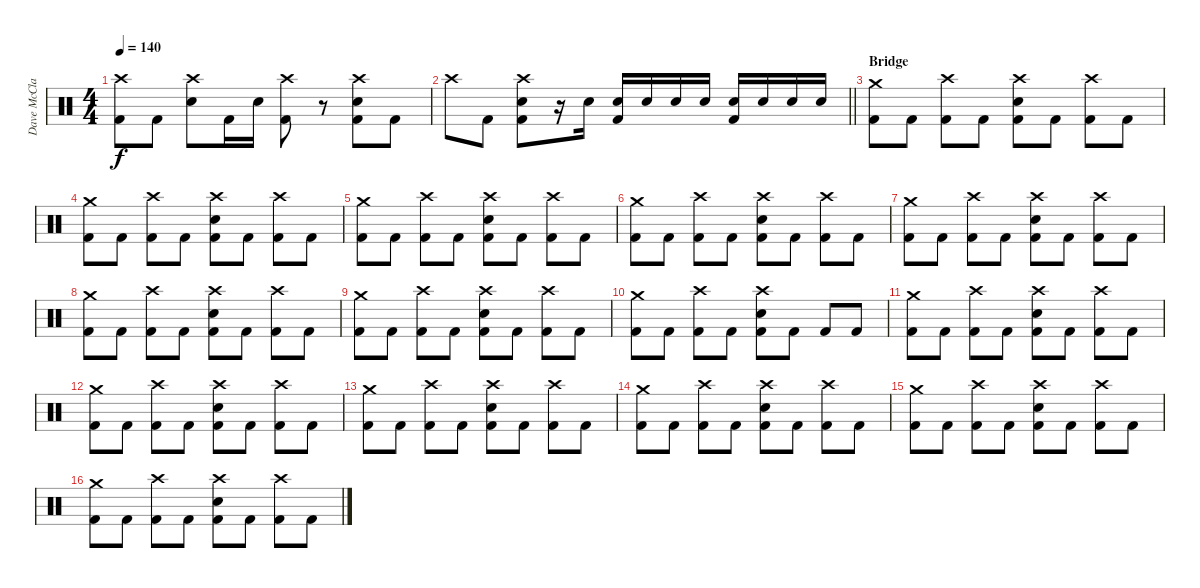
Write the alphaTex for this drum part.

\track ("Dave McClain" "Dave McCla") {solo instrument percussion}
\staff {score}
\articulation defaults
\ts (4 4)
\tempo 140
\clef neutral
\ks c
("Crash high (hit)" "Kick (hit) 2").8{dy f} "Kick (hit) 2".8 ("Crash high (hit)" "Electric Snare (hit)").8 "Kick (hit) 2".16 "Electric Snare (hit)".16 ("Crash high (hit)" "Kick (hit) 2").8 r.8 ("Crash high (hit)" "Electric Snare (hit)" "Kick (hit) 2").8 "Kick (hit) 2".8 |
\barLineRight lightlight "Crash high (hit)".8 "Kick (hit) 2".8
("Crash high (hit)" "Electric Snare (hit)" "Kick (hit) 2").8 r.16 "Electric Snare (hit)".16 ("Electric Snare (hit)" "Kick (hit) 2").16 "Electric Snare (hit)".16 "Electric Snare (hit)".16 "Electric Snare (hit)".16 ("Electric Snare (hit)" "Kick (hit) 2").16 "Electric Snare (hit)".16 "Electric Snare (hit)".16 "Electric Snare (hit)".16 |
\section ("" "Bridge")
("Crash medium (hit)" "Kick (hit) 2").8 "Kick (hit) 2".8 ("Crash high (hit)" "Kick (hit) 2").8 "Kick (hit) 2".8 ("Crash high (hit)" "Electric Snare (hit)" "Kick (hit) 2").8 "Kick (hit) 2".8 ("Crash high (hit)" "Kick (hit) 2").8 "Kick (hit) 2".8 |
("Crash medium (hit)" "Kick (hit) 2").8 "Kick (hit) 2".8 ("Crash high (hit)" "Kick (hit) 2").8 "Kick (hit) 2".8 ("Crash high (hit)" "Electric Snare (hit)" "Kick (hit) 2").8 "Kick (hit) 2".8 ("Crash high (hit)" "Kick (hit) 2").8 "Kick (hit) 2".8 |
("Crash medium (hit)" "Kick (hit) 2").8 "Kick (hit) 2".8 ("Crash high (hit)" "Kick (hit) 2").8 "Kick (hit) 2".8 ("Crash high (hit)" "Electric Snare (hit)" "Kick (hit) 2").8 "Kick (hit) 2".8 ("Crash high (hit)" "Kick (hit) 2").8 "Kick (hit) 2".8 |
("Crash medium (hit)" "Kick (hit) 2").8 "Kick (hit) 2".8 ("Crash high (hit)" "Kick (hit) 2").8 "Kick (hit) 2".8 ("Crash high (hit)" "Electric Snare (hit)" "Kick (hit) 2").8 "Kick (hit) 2".8 ("Crash high (hit)" "Kick (hit) 2").8 "Kick (hit) 2".8 |
("Crash medium (hit)" "Kick (hit) 2").8 "Kick (hit) 2".8 ("Crash high (hit)" "Kick (hit) 2").8 "Kick (hit) 2".8 ("Crash high (hit)" "Electric Snare (hit)" "Kick (hit) 2").8 "Kick (hit) 2".8 ("Crash high (hit)" "Kick (hit) 2").8 "Kick (hit) 2".8 |
("Crash medium (hit)" "Kick (hit) 2").8 "Kick (hit) 2".8 ("Crash high (hit)" "Kick (hit) 2").8 "Kick (hit) 2".8 ("Crash high (hit)" "Electric Snare (hit)" "Kick (hit) 2").8 "Kick (hit) 2".8 ("Crash high (hit)" "Kick (hit) 2").8 "Kick (hit) 2".8 |
("Crash medium (hit)" "Kick (hit) 2").8 "Kick (hit) 2".8 ("Crash high (hit)" "Kick (hit) 2").8 "Kick (hit) 2".8 ("Crash high (hit)" "Electric Snare (hit)" "Kick (hit) 2").8 "Kick (hit) 2".8 ("Crash high (hit)" "Kick (hit) 2").8 "Kick (hit) 2".8 |
("Crash medium (hit)" "Kick (hit) 2").8 "Kick (hit) 2".8 ("Crash high (hit)" "Kick (hit) 2").8 "Kick (hit) 2".8 ("Crash high (hit)" "Electric Snare (hit)" "Kick (hit) 2").8 "Kick (hit) 2".8 "Kick (hit) 2".8 "Kick (hit) 2".8 |
("Crash medium (hit)" "Kick (hit) 2").8 "Kick (hit) 2".8 ("Crash high (hit)" "Kick (hit) 2").8 "Kick (hit) 2".8 ("Crash high (hit)" "Electric Snare (hit)" "Kick (hit) 2").8 "Kick (hit) 2".8 ("Crash high (hit)" "Kick (hit) 2").8 "Kick (hit) 2".8 |
("Crash medium (hit)" "Kick (hit) 2").8 "Kick (hit) 2".8 ("Crash high (hit)" "Kick (hit) 2").8 "Kick (hit) 2".8 ("Crash high (hit)" "Electric Snare (hit)" "Kick (hit) 2").8 "Kick (hit) 2".8 ("Crash high (hit)" "Kick (hit) 2").8 "Kick (hit) 2".8 |
("Crash medium (hit)" "Kick (hit) 2").8 "Kick (hit) 2".8 ("Crash high (hit)" "Kick (hit) 2").8 "Kick (hit) 2".8 ("Crash high (hit)" "Electric Snare (hit)" "Kick (hit) 2").8 "Kick (hit) 2".8 ("Crash high (hit)" "Kick (hit) 2").8 "Kick (hit) 2".8 |
("Crash medium (hit)" "Kick (hit) 2").8 "Kick (hit) 2".8 ("Crash high (hit)" "Kick (hit) 2").8 "Kick (hit) 2".8 ("Crash high (hit)" "Electric Snare (hit)" "Kick (hit) 2").8 "Kick (hit) 2".8 ("Crash high (hit)" "Kick (hit) 2").8 "Kick (hit) 2".8 |
("Crash medium (hit)" "Kick (hit) 2").8 "Kick (hit) 2".8 ("Crash high (hit)" "Kick (hit) 2").8 "Kick (hit) 2".8 ("Crash high (hit)" "Electric Snare (hit)" "Kick (hit) 2").8 "Kick (hit) 2".8 ("Crash high (hit)" "Kick (hit) 2").8 "Kick (hit) 2".8 |
("Crash medium (hit)" "Kick (hit) 2").8 "Kick (hit) 2".8 ("Crash high (hit)" "Kick (hit) 2").8 "Kick (hit) 2".8 ("Crash high (hit)" "Electric Snare (hit)" "Kick (hit) 2").8 "Kick (hit) 2".8 ("Crash high (hit)" "Kick (hit) 2").8 "Kick (hit) 2".8
